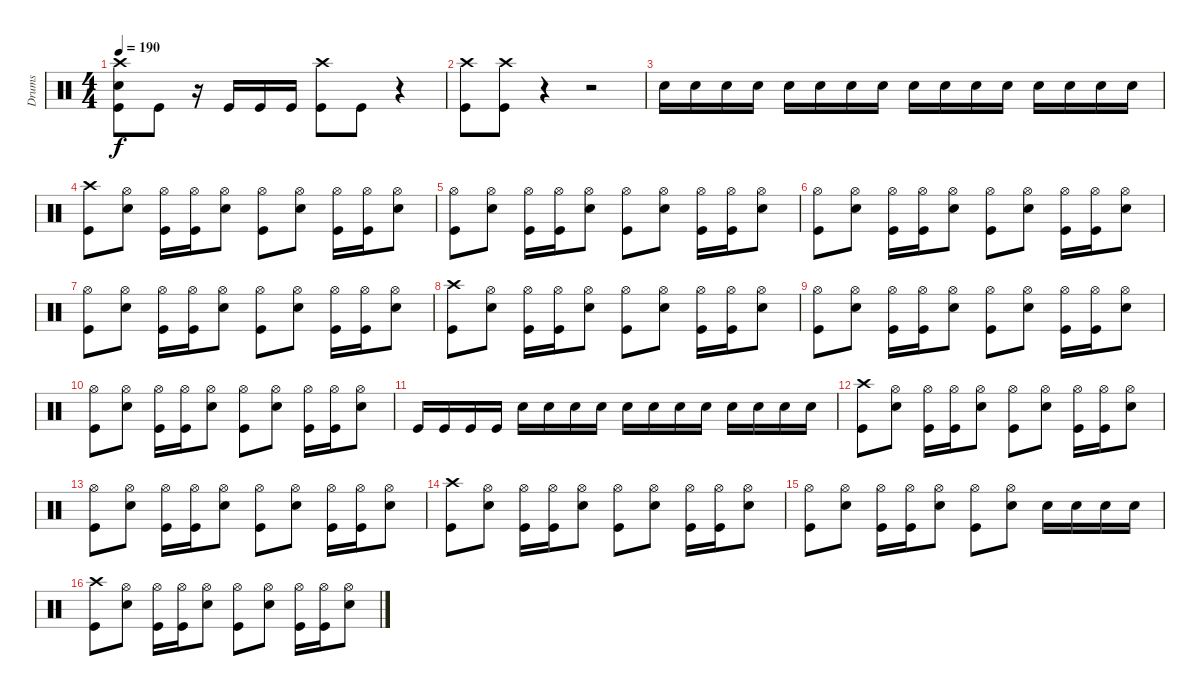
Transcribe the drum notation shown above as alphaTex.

\track ("Drums" "Drums") {instrument percussion}
\staff {score}
\articulation defaults
\ts (4 4)
\tempo 190
\clef neutral
\ks c
("Crash high (hit)" "Snare (hit) 2" "Kick (hit)").8{dy f} "Kick (hit)".8 r.16 "Kick (hit)".16 "Kick (hit)".16 "Kick (hit)".16 ("Crash high (hit)" "Kick (hit)").8 "Kick (hit)".8 r.4 |
("Crash high (hit)" "Kick (hit)").8 ("Crash high (hit)" "Kick (hit)").8 r.4 r.2 |
"Snare (hit) 2".16 "Snare (hit) 2".16 "Snare (hit) 2".16 "Snare (hit) 2".16 "Snare (hit) 2".16 "Snare (hit) 2".16 "Snare (hit) 2".16 "Snare (hit) 2".16 "Snare (hit) 2".16 "Snare (hit) 2".16 "Snare (hit) 2".16 "Snare (hit) 2".16 "Snare (hit) 2".16 "Snare (hit) 2".16 "Snare (hit) 2".16 "Snare (hit) 2".16 |
("Crash high (hit)" "Kick (hit)").8 ("Hi-Hat (open)" "Snare (hit) 2").8 ("Hi-Hat (open)" "Kick (hit)").16 ("Hi-Hat (open)" "Kick (hit)").16 ("Hi-Hat (open)" "Snare (hit) 2").8 ("Hi-Hat (open)" "Kick (hit)").8 ("Hi-Hat (open)" "Snare (hit) 2").8 ("Hi-Hat (open)" "Kick (hit)").16 ("Hi-Hat (open)" "Kick (hit)").16 ("Hi-Hat (open)" "Snare (hit) 2").8 |
("Hi-Hat (open)" "Kick (hit)").8 ("Hi-Hat (open)" "Snare (hit) 2").8 ("Hi-Hat (open)" "Kick (hit)").16 ("Hi-Hat (open)" "Kick (hit)").16 ("Hi-Hat (open)" "Snare (hit) 2").8 ("Hi-Hat (open)" "Kick (hit)").8 ("Hi-Hat (open)" "Snare (hit) 2").8 ("Hi-Hat (open)" "Kick (hit)").16 ("Hi-Hat (open)" "Kick (hit)").16 ("Hi-Hat (open)" "Snare (hit) 2").8 |
("Hi-Hat (open)" "Kick (hit)").8 ("Hi-Hat (open)" "Snare (hit) 2").8 ("Hi-Hat (open)" "Kick (hit)").16 ("Hi-Hat (open)" "Kick (hit)").16 ("Hi-Hat (open)" "Snare (hit) 2").8 ("Hi-Hat (open)" "Kick (hit)").8 ("Hi-Hat (open)" "Snare (hit) 2").8 ("Hi-Hat (open)" "Kick (hit)").16 ("Hi-Hat (open)" "Kick (hit)").16 ("Hi-Hat (open)" "Snare (hit) 2").8 |
("Hi-Hat (open)" "Kick (hit)").8 ("Hi-Hat (open)" "Snare (hit) 2").8 ("Hi-Hat (open)" "Kick (hit)").16 ("Hi-Hat (open)" "Kick (hit)").16 ("Hi-Hat (open)" "Snare (hit) 2").8 ("Hi-Hat (open)" "Kick (hit)").8 ("Hi-Hat (open)" "Snare (hit) 2").8 ("Hi-Hat (open)" "Kick (hit)").16 ("Hi-Hat (open)" "Kick (hit)").16 ("Hi-Hat (open)" "Snare (hit) 2").8 |
("Crash high (hit)" "Kick (hit)").8 ("Hi-Hat (open)" "Snare (hit) 2").8 ("Hi-Hat (open)" "Kick (hit)").16 ("Hi-Hat (open)" "Kick (hit)").16 ("Hi-Hat (open)" "Snare (hit) 2").8 ("Hi-Hat (open)" "Kick (hit)").8 ("Hi-Hat (open)" "Snare (hit) 2").8 ("Hi-Hat (open)" "Kick (hit)").16 ("Hi-Hat (open)" "Kick (hit)").16 ("Hi-Hat (open)" "Snare (hit) 2").8 |
("Hi-Hat (open)" "Kick (hit)").8 ("Hi-Hat (open)" "Snare (hit) 2").8 ("Hi-Hat (open)" "Kick (hit)").16 ("Hi-Hat (open)" "Kick (hit)").16 ("Hi-Hat (open)" "Snare (hit) 2").8 ("Hi-Hat (open)" "Kick (hit)").8 ("Hi-Hat (open)" "Snare (hit) 2").8 ("Hi-Hat (open)" "Kick (hit)").16 ("Hi-Hat (open)" "Kick (hit)").16 ("Hi-Hat (open)" "Snare (hit) 2").8 |
("Hi-Hat (open)" "Kick (hit)").8 ("Hi-Hat (open)" "Snare (hit) 2").8 ("Hi-Hat (open)" "Kick (hit)").16 ("Hi-Hat (open)" "Kick (hit)").16 ("Hi-Hat (open)" "Snare (hit) 2").8 ("Hi-Hat (open)" "Kick (hit)").8 ("Hi-Hat (open)" "Snare (hit) 2").8 ("Hi-Hat (open)" "Kick (hit)").16 ("Hi-Hat (open)" "Kick (hit)").16 ("Hi-Hat (open)" "Snare (hit) 2").8 |
"Kick (hit)".16 "Kick (hit)".16 "Kick (hit)".16 "Kick (hit)".16 "Snare (hit) 2".16 "Snare (hit) 2".16 "Snare (hit) 2".16 "Snare (hit) 2".16 "Snare (hit) 2".16 "Snare (hit) 2".16 "Snare (hit) 2".16 "Snare (hit) 2".16 "Snare (hit) 2".16 "Snare (hit) 2".16 "Snare (hit) 2".16 "Snare (hit) 2".16 |
("Crash high (hit)" "Kick (hit)").8 ("Hi-Hat (open)" "Snare (hit) 2").8 ("Hi-Hat (open)" "Kick (hit)").16 ("Hi-Hat (open)" "Kick (hit)").16 ("Hi-Hat (open)" "Snare (hit) 2").8 ("Hi-Hat (open)" "Kick (hit)").8 ("Hi-Hat (open)" "Snare (hit) 2").8 ("Hi-Hat (open)" "Kick (hit)").16 ("Hi-Hat (open)" "Kick (hit)").16 ("Hi-Hat (open)" "Snare (hit) 2").8 |
("Hi-Hat (open)" "Kick (hit)").8 ("Hi-Hat (open)" "Snare (hit) 2").8 ("Hi-Hat (open)" "Kick (hit)").16 ("Hi-Hat (open)" "Kick (hit)").16 ("Hi-Hat (open)" "Snare (hit) 2").8 ("Hi-Hat (open)" "Kick (hit)").8 ("Hi-Hat (open)" "Snare (hit) 2").8 ("Hi-Hat (open)" "Kick (hit)").16 ("Hi-Hat (open)" "Kick (hit)").16 ("Hi-Hat (open)" "Snare (hit) 2").8 |
("Crash high (hit)" "Kick (hit)").8 ("Hi-Hat (open)" "Snare (hit) 2").8 ("Hi-Hat (open)" "Kick (hit)").16 ("Hi-Hat (open)" "Kick (hit)").16 ("Hi-Hat (open)" "Snare (hit) 2").8 ("Hi-Hat (open)" "Kick (hit)").8 ("Hi-Hat (open)" "Snare (hit) 2").8 ("Hi-Hat (open)" "Kick (hit)").16 ("Hi-Hat (open)" "Kick (hit)").16 ("Hi-Hat (open)" "Snare (hit) 2").8 |
("Hi-Hat (open)" "Kick (hit)").8 ("Hi-Hat (open)" "Snare (hit) 2").8 ("Hi-Hat (open)" "Kick (hit)").16 ("Hi-Hat (open)" "Kick (hit)").16 ("Hi-Hat (open)" "Snare (hit) 2").8 ("Hi-Hat (open)" "Kick (hit)").8 ("Hi-Hat (open)" "Snare (hit) 2").8 "Snare (hit) 2".16 "Snare (hit) 2".16 "Snare (hit) 2".16 "Snare (hit) 2".16 |
("Crash high (hit)" "Kick (hit)").8 ("Hi-Hat (open)" "Snare (hit) 2").8 ("Hi-Hat (open)" "Kick (hit)").16 ("Hi-Hat (open)" "Kick (hit)").16 ("Hi-Hat (open)" "Snare (hit) 2").8 ("Hi-Hat (open)" "Kick (hit)").8 ("Hi-Hat (open)" "Snare (hit) 2").8 ("Hi-Hat (open)" "Kick (hit)").16 ("Hi-Hat (open)" "Kick (hit)").16 ("Hi-Hat (open)" "Snare (hit) 2").8
